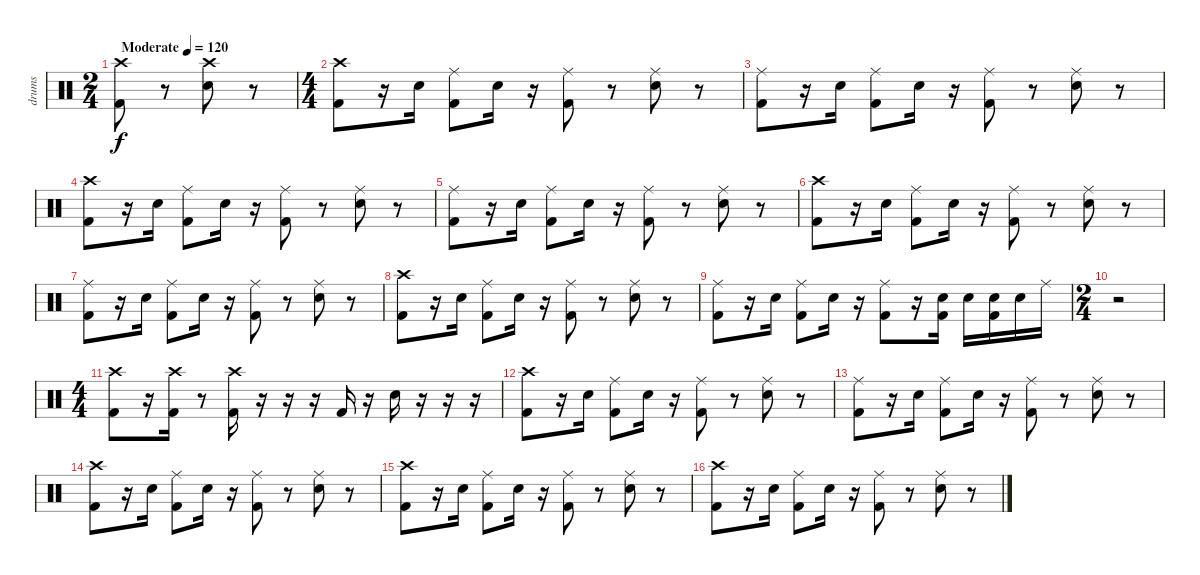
\track ("drums" "drums") {instrument percussion}
\staff {score}
\articulation defaults
\ts (2 4)
\tempo (120 "Moderate")
\clef neutral
\ks c
("Crash high (hit)" "Kick (hit) 2").8{dy f} r.8 ("Crash high (hit)" "Snare (hit) 2").8 r.8 |
\ts (4 4)
("Crash high (hit)" "Kick (hit) 2").8 r.16 "Snare (hit) 2".16 ("Ride (middle)" "Kick (hit) 2").8 "Snare (hit) 2".16 r.16 ("Ride (middle)" "Kick (hit) 2").8 r.8 ("Ride (middle)" "Snare (hit) 2").8 r.8 |
("Ride (middle)" "Kick (hit) 2").8 r.16 "Snare (hit) 2".16 ("Ride (middle)" "Kick (hit) 2").8 "Snare (hit) 2".16 r.16 ("Ride (middle)" "Kick (hit) 2").8 r.8 ("Ride (middle)" "Snare (hit) 2").8 r.8 |
("Crash high (hit)" "Kick (hit) 2").8 r.16 "Snare (hit) 2".16 ("Ride (middle)" "Kick (hit) 2").8 "Snare (hit) 2".16 r.16 ("Ride (middle)" "Kick (hit) 2").8 r.8 ("Ride (middle)" "Snare (hit) 2").8 r.8 |
("Ride (middle)" "Kick (hit) 2").8 r.16 "Snare (hit) 2".16 ("Ride (middle)" "Kick (hit) 2").8 "Snare (hit) 2".16 r.16 ("Ride (middle)" "Kick (hit) 2").8 r.8 ("Ride (middle)" "Snare (hit) 2").8 r.8 |
("Crash high (hit)" "Kick (hit) 2").8 r.16 "Snare (hit) 2".16 ("Ride (middle)" "Kick (hit) 2").8 "Snare (hit) 2".16 r.16 ("Ride (middle)" "Kick (hit) 2").8 r.8 ("Ride (middle)" "Snare (hit) 2").8 r.8 |
("Ride (middle)" "Kick (hit) 2").8 r.16 "Snare (hit) 2".16 ("Ride (middle)" "Kick (hit) 2").8 "Snare (hit) 2".16 r.16 ("Ride (middle)" "Kick (hit) 2").8 r.8 ("Ride (middle)" "Snare (hit) 2").8 r.8 |
("Crash high (hit)" "Kick (hit) 2").8 r.16 "Snare (hit) 2".16 ("Ride (middle)" "Kick (hit) 2").8 "Snare (hit) 2".16 r.16 ("Ride (middle)" "Kick (hit) 2").8 r.8 ("Ride (middle)" "Snare (hit) 2").8 r.8 |
("Ride (middle)" "Kick (hit) 2").8 r.16 "Snare (hit) 2".16 ("Ride (middle)" "Kick (hit) 2").8 "Snare (hit) 2".16 r.16 ("Ride (middle)" "Kick (hit) 2").8 r.16 ("Snare (hit) 2" "Kick (hit) 2").16 "Snare (hit) 2".16 ("Snare (hit) 2" "Kick (hit) 2").16 "Snare (hit) 2".16 "Ride (middle)".16 |
\ts (2 4)
r.2 |
\ts (4 4)
("Crash high (hit)" "Kick (hit) 2").8 r.16 ("Crash high (hit)" "Kick (hit) 2").16 r.8 ("Crash high (hit)" "Kick (hit) 2").16 r.16 r.16 r.16 "Kick (hit) 2".16 r.16 "Electric Snare (hit)".16 r.16 r.16 r.16 |
("Crash high (hit)" "Kick (hit) 2").8 r.16 "Snare (hit) 2".16 ("Ride (middle)" "Kick (hit) 2").8 "Snare (hit) 2".16 r.16 ("Ride (middle)" "Kick (hit) 2").8 r.8 ("Ride (middle)" "Snare (hit) 2").8 r.8 |
("Ride (middle)" "Kick (hit) 2").8 r.16 "Snare (hit) 2".16 ("Ride (middle)" "Kick (hit) 2").8 "Snare (hit) 2".16 r.16 ("Ride (middle)" "Kick (hit) 2").8 r.8 ("Ride (middle)" "Snare (hit) 2").8 r.8 |
("Crash high (hit)" "Kick (hit) 2").8 r.16 "Snare (hit) 2".16 ("Ride (middle)" "Kick (hit) 2").8 "Snare (hit) 2".16 r.16 ("Ride (middle)" "Kick (hit) 2").8 r.8 ("Ride (middle)" "Snare (hit) 2").8 r.8 |
("Crash high (hit)" "Kick (hit) 2").8 r.16 "Snare (hit) 2".16 ("Ride (middle)" "Kick (hit) 2").8 "Snare (hit) 2".16 r.16 ("Ride (middle)" "Kick (hit) 2").8 r.8 ("Ride (middle)" "Snare (hit) 2").8 r.8 |
("Crash high (hit)" "Kick (hit) 2").8 r.16 "Snare (hit) 2".16 ("Ride (middle)" "Kick (hit) 2").8 "Snare (hit) 2".16 r.16 ("Ride (middle)" "Kick (hit) 2").8 r.8 ("Ride (middle)" "Snare (hit) 2").8 r.8
